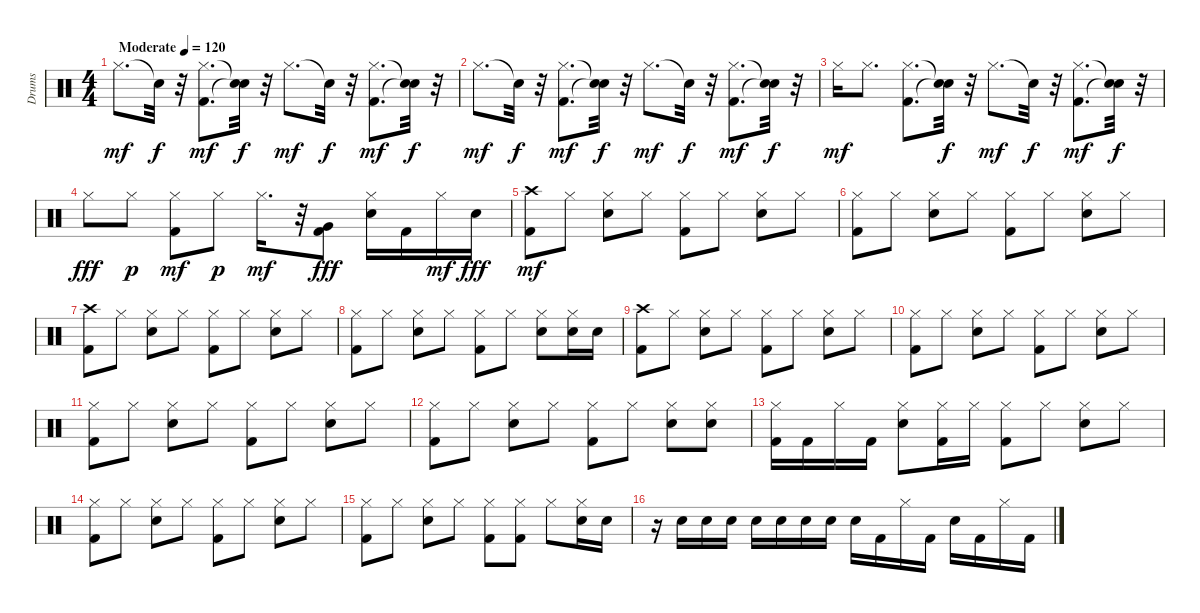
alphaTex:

\track ("Drums" "Drums") {instrument percussion}
\staff {score}
\articulation defaults
\ts (4 4)
\tempo (120 "Moderate")
\clef neutral
\ks c "Hi-Hat (closed)".8{d dy mf} "Snare (hit)"{t}.32{dy f}
r.32 ("Kick (hit) 2" "Hi-Hat (closed)").8{d dy mf} ("Snare (hit)"{t} "Snare (hit)"{t}).32{dy f} r.32 "Hi-Hat (closed)".8{d dy mf} "Snare (hit)"{t}.32{dy f} r.32 ("Hi-Hat (closed)" "Kick (hit) 2").8{d dy mf} ("Snare (hit)"{t} "Snare (hit)"{t}).32{dy f} r.32 |
"Hi-Hat (closed)".8{d dy mf} "Snare (hit)"{t}.32{dy f} r.32 ("Kick (hit) 2" "Hi-Hat (closed)").8{d dy mf} ("Snare (hit)"{t} "Snare (hit)"{t}).32{dy f} r.32 "Hi-Hat (closed)".8{d dy mf} "Snare (hit)"{t}.32{dy f} r.32 ("Kick (hit) 2" "Hi-Hat (closed)").8{d dy mf} ("Snare (hit)"{t} "Snare (hit)"{t}).32{dy f} r.32 |
"Hi-Hat (closed)".16{dy mf} "Hi-Hat (closed)".8{d} ("Hi-Hat (closed)" "Kick (hit) 2").8{d} ("Snare (hit)"{t} "Snare (hit)"{t}).32{dy f} r.32 "Hi-Hat (closed)".8{d dy mf} "Snare (hit)"{t}.32{dy f} r.32 ("Hi-Hat (closed)" "Kick (hit) 2").8{d dy mf} ("Snare (hit)"{t} "Snare (hit)"{t}).32{dy f} r.32 |
"Hi-Hat (closed)".8{dy fff} "Hi-Hat (closed)".8{dy p} ("Hi-Hat (closed)" "Kick (hit) 2").8{dy mf} "Hi-Hat (closed)".8{dy p} "Hi-Hat (closed)".16{d dy mf} r.32 ("Very Low Tom (hit)" "Kick (hit) 2").8{dy fff} ("Hi-Hat (closed)" "Snare (hit) 2").16 "Kick (hit) 2".16 "Hi-Hat (closed)".16{dy mf} "Snare (hit) 2".16{dy fff} |
("Kick (hit) 2" "Crash high (hit)").8{dy mf} "Hi-Hat (closed)".8 ("Hi-Hat (closed)" "Snare (hit) 2").8 "Hi-Hat (closed)".8 ("Hi-Hat (closed)" "Kick (hit) 2").8 "Hi-Hat (closed)".8 ("Snare (hit) 2" "Hi-Hat (closed)").8 "Hi-Hat (closed)".8 |
("Hi-Hat (closed)" "Kick (hit) 2").8 "Hi-Hat (closed)".8 ("Hi-Hat (closed)" "Snare (hit) 2").8 "Hi-Hat (closed)".8 ("Hi-Hat (closed)" "Kick (hit) 2").8 "Hi-Hat (closed)".8 ("Hi-Hat (closed)" "Snare (hit) 2").8 "Hi-Hat (closed)".8 |
("Kick (hit) 2" "Crash high (hit)").8 "Hi-Hat (closed)".8 ("Hi-Hat (closed)" "Snare (hit) 2").8 "Hi-Hat (closed)".8 ("Hi-Hat (closed)" "Kick (hit) 2").8 "Hi-Hat (closed)".8 ("Snare (hit) 2" "Hi-Hat (closed)").8 "Hi-Hat (closed)".8 |
("Kick (hit) 2" "Hi-Hat (closed)").8 "Hi-Hat (closed)".8 ("Hi-Hat (closed)" "Snare (hit) 2").8 "Hi-Hat (closed)".8 ("Hi-Hat (closed)" "Kick (hit) 2").8 "Hi-Hat (closed)".8 ("Snare (hit) 2" "Hi-Hat (closed)").8 ("Hi-Hat (closed)" "Snare (hit) 2").16 "Snare (hit) 2".16 |
("Crash high (hit)" "Kick (hit) 2").8 "Hi-Hat (closed)".8 ("Snare (hit) 2" "Hi-Hat (closed)").8 "Hi-Hat (closed)".8 ("Hi-Hat (closed)" "Kick (hit) 2").8 "Hi-Hat (closed)".8 ("Hi-Hat (closed)" "Snare (hit) 2").8 "Hi-Hat (closed)".8 |
("Hi-Hat (closed)" "Kick (hit) 2").8 "Hi-Hat (closed)".8 ("Snare (hit) 2" "Hi-Hat (closed)").8 "Hi-Hat (closed)".8 ("Kick (hit) 2" "Hi-Hat (closed)").8 "Hi-Hat (closed)".8 ("Snare (hit) 2" "Hi-Hat (closed)").8 "Hi-Hat (closed)".8 |
("Kick (hit) 2" "Hi-Hat (closed)").8 "Hi-Hat (closed)".8 ("Snare (hit) 2" "Hi-Hat (closed)").8 "Hi-Hat (closed)".8 ("Hi-Hat (closed)" "Kick (hit) 2").8 "Hi-Hat (closed)".8 ("Snare (hit) 2" "Hi-Hat (closed)").8 "Hi-Hat (closed)".8 |
("Kick (hit) 2" "Hi-Hat (closed)").8 "Hi-Hat (closed)".8 ("Hi-Hat (closed)" "Snare (hit) 2").8 "Hi-Hat (closed)".8 ("Kick (hit) 2" "Hi-Hat (closed)").8 "Hi-Hat (closed)".8 ("Hi-Hat (closed)" "Snare (hit) 2").8 ("Hi-Hat (closed)" "Snare (hit) 2").8 |
("Kick (hit) 2" "Hi-Hat (closed)").16 "Kick (hit) 2".16 "Hi-Hat (closed)".16 "Kick (hit) 2".16 ("Snare (hit) 2" "Hi-Hat (closed)").8 ("Kick (hit) 2" "Hi-Hat (closed)").16 "Hi-Hat (closed)".16 ("Kick (hit) 2" "Hi-Hat (closed)").8 "Hi-Hat (closed)".8 ("Hi-Hat (closed)" "Snare (hit) 2").8 "Hi-Hat (closed)".8 |
("Hi-Hat (closed)" "Kick (hit) 2").8 "Hi-Hat (closed)".8 ("Hi-Hat (closed)" "Snare (hit) 2").8 "Hi-Hat (closed)".8 ("Kick (hit) 2" "Hi-Hat (closed)").8 "Hi-Hat (closed)".8 ("Snare (hit) 2" "Hi-Hat (closed)").8 "Hi-Hat (closed)".8 |
("Hi-Hat (closed)" "Kick (hit) 2").8 "Hi-Hat (closed)".8 ("Snare (hit) 2" "Hi-Hat (closed)").8 "Hi-Hat (closed)".8 ("Hi-Hat (closed)" "Kick (hit) 2").8 ("Kick (hit) 2" "Hi-Hat (closed)").8 "Hi-Hat (closed)".8 ("Snare (hit) 2" "Hi-Hat (closed)").16 "Snare (hit) 2".16 |
r.16 "Snare (hit) 2".16 "Snare (hit) 2".16 "Snare (hit) 2".16 "Snare (hit) 2".16 "Snare (hit) 2".16 "Snare (hit) 2".16 "Snare (hit) 2".16 "Snare (hit) 2".16 "Kick (hit) 2".16 "Hi-Hat (closed)".16 "Kick (hit) 2".16 "Snare (hit) 2".16 "Kick (hit) 2".16 "Hi-Hat (closed)".16 "Kick (hit) 2".16
